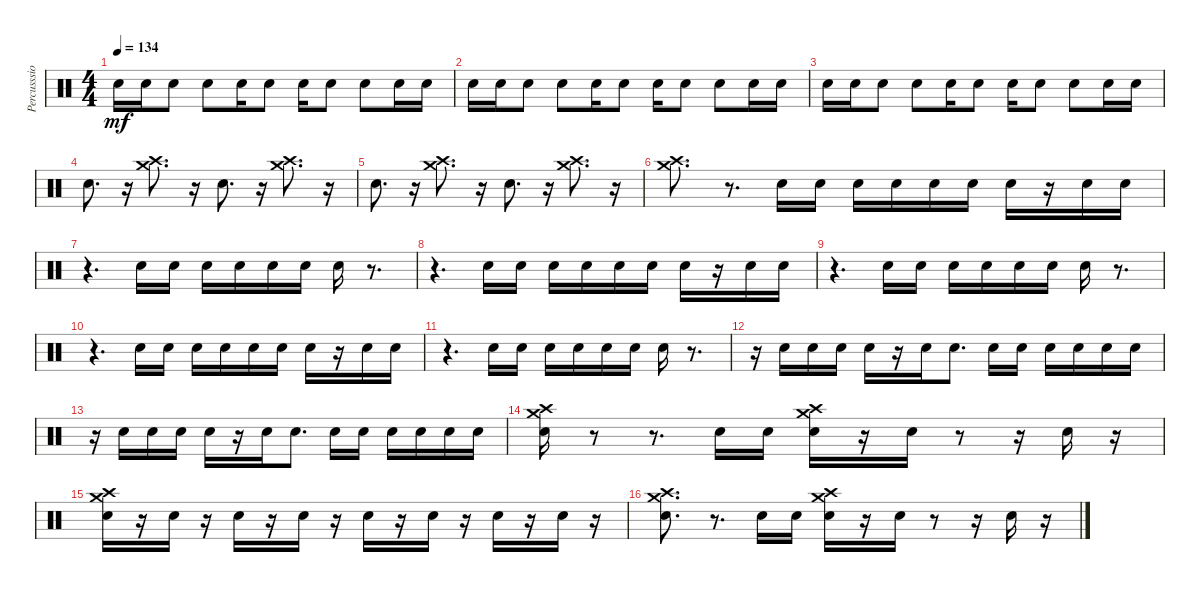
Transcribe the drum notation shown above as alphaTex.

\track ("Percusssion" "Percusssio") {instrument percussion}
\staff {score}
\articulation defaults
\ts (4 4)
\tempo 134
\clef neutral
\ks c "Snare (hit) 2".16{dy mf} "Snare (hit) 2".16 "Snare (hit) 2".8 "Snare (hit) 2".8 "Snare (hit) 2".16 "Snare (hit) 2".8 "Snare (hit) 2".16 "Snare (hit) 2".8 "Snare (hit) 2".8 "Snare (hit) 2".16 "Snare (hit) 2".16
|
"Snare (hit) 2".16 "Snare (hit) 2".16 "Snare (hit) 2".8 "Snare (hit) 2".8 "Snare (hit) 2".16 "Snare (hit) 2".8 "Snare (hit) 2".16 "Snare (hit) 2".8 "Snare (hit) 2".8 "Snare (hit) 2".16 "Snare (hit) 2".16 |
"Snare (hit) 2".16 "Snare (hit) 2".16 "Snare (hit) 2".8 "Snare (hit) 2".8 "Snare (hit) 2".16 "Snare (hit) 2".8 "Snare (hit) 2".16 "Snare (hit) 2".8 "Snare (hit) 2".8 "Snare (hit) 2".16 "Snare (hit) 2".16 |
"Snare (hit) 2".8{d} r.16 ("Crash high (hit)" "Crash medium (hit)").8{d} r.16 "Snare (hit) 2".8{d} r.16 ("Crash high (hit)" "Crash medium (hit)").8{d} r.16 |
"Snare (hit) 2".8{d} r.16 ("Crash high (hit)" "Crash medium (hit)").8{d} r.16 "Snare (hit) 2".8{d} r.16 ("Crash high (hit)" "Crash medium (hit)").8{d} r.16 |
("Crash high (hit)" "Crash medium (hit)").8{d} r.8{d} "Snare (hit) 2".16 "Snare (hit) 2".16 "Snare (hit) 2".16 "Snare (hit) 2".16 "Snare (hit) 2".16 "Snare (hit) 2".16 "Snare (hit) 2".16 r.16 "Snare (hit) 2".16 "Snare (hit) 2".16 |
r.4{d} "Snare (hit) 2".16 "Snare (hit) 2".16 "Snare (hit) 2".16 "Snare (hit) 2".16 "Snare (hit) 2".16 "Snare (hit) 2".16 "Snare (hit) 2".16 r.8{d} |
r.4{d} "Snare (hit) 2".16 "Snare (hit) 2".16 "Snare (hit) 2".16 "Snare (hit) 2".16 "Snare (hit) 2".16 "Snare (hit) 2".16 "Snare (hit) 2".16 r.16 "Snare (hit) 2".16 "Snare (hit) 2".16 |
r.4{d} "Snare (hit) 2".16 "Snare (hit) 2".16 "Snare (hit) 2".16 "Snare (hit) 2".16 "Snare (hit) 2".16 "Snare (hit) 2".16 "Snare (hit) 2".16 r.8{d} |
r.4{d} "Snare (hit) 2".16 "Snare (hit) 2".16 "Snare (hit) 2".16 "Snare (hit) 2".16 "Snare (hit) 2".16 "Snare (hit) 2".16 "Snare (hit) 2".16 r.16 "Snare (hit) 2".16 "Snare (hit) 2".16 |
r.4{d} "Snare (hit) 2".16 "Snare (hit) 2".16 "Snare (hit) 2".16 "Snare (hit) 2".16 "Snare (hit) 2".16 "Snare (hit) 2".16 "Snare (hit) 2".16 r.8{d} |
r.16 "Snare (hit) 2".16 "Snare (hit) 2".16 "Snare (hit) 2".16 "Snare (hit) 2".16 r.16 "Snare (hit) 2".16 "Snare (hit) 2".8{d} "Snare (hit) 2".16 "Snare (hit) 2".16 "Snare (hit) 2".16 "Snare (hit) 2".16 "Snare (hit) 2".16 "Snare (hit) 2".16 |
r.16 "Snare (hit) 2".16 "Snare (hit) 2".16 "Snare (hit) 2".16 "Snare (hit) 2".16 r.16 "Snare (hit) 2".16 "Snare (hit) 2".8{d} "Snare (hit) 2".16 "Snare (hit) 2".16 "Snare (hit) 2".16 "Snare (hit) 2".16 "Snare (hit) 2".16 "Snare (hit) 2".16 |
("Snare (hit) 2" "Crash high (hit)" "Crash medium (hit)").16 r.8 r.8{d} "Snare (hit) 2".16 "Snare (hit) 2".16 ("Snare (hit) 2" "Crash high (hit)" "Crash medium (hit)").16 r.16 "Snare (hit) 2".16 r.8 r.16 "Snare (hit) 2".16 r.16 |
("Snare (hit) 2" "Crash high (hit)" "Crash medium (hit)").16 r.16 "Snare (hit) 2".16 r.16 "Snare (hit) 2".16 r.16 "Snare (hit) 2".16 r.16 "Snare (hit) 2".16 r.16 "Snare (hit) 2".16 r.16 "Snare (hit) 2".16 r.16 "Snare (hit) 2".16 r.16 |
("Snare (hit) 2" "Crash high (hit)" "Crash medium (hit)").8{d} r.8{d} "Snare (hit) 2".16 "Snare (hit) 2".16 ("Snare (hit) 2" "Crash high (hit)" "Crash medium (hit)").16 r.16 "Snare (hit) 2".16 r.8 r.16 "Snare (hit) 2".16 r.16
